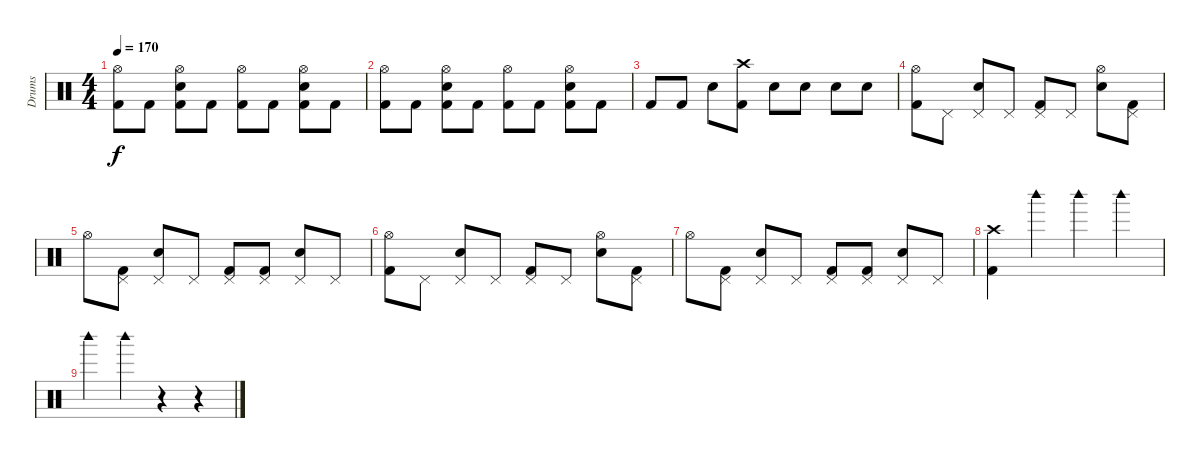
\track ("Drums" "Drums") {instrument percussion}
\staff {score}
\articulation defaults
\ts (4 4)
\tempo 170
\clef neutral
\ks c
("Hi-Hat (open)" "Kick (hit) 2").8{dy f} "Kick (hit) 2".8 ("Hi-Hat (open)" "Snare (hit) 2" "Kick (hit) 2").8 "Kick (hit) 2".8 ("Hi-Hat (open)" "Kick (hit) 2").8 "Kick (hit) 2".8 ("Hi-Hat (open)" "Snare (hit) 2" "Kick (hit) 2").8 "Kick (hit) 2".8 |
("Hi-Hat (open)" "Kick (hit) 2").8 "Kick (hit) 2".8 ("Hi-Hat (open)" "Snare (hit) 2" "Kick (hit) 2").8 "Kick (hit) 2".8 ("Hi-Hat (open)" "Kick (hit) 2").8 "Kick (hit) 2".8 ("Hi-Hat (open)" "Snare (hit) 2" "Kick (hit) 2").8 "Kick (hit) 2".8 |
"Kick (hit) 2".8 "Kick (hit) 2".8 "Snare (hit) 2".8 ("Crash high (hit)" "Kick (hit) 2").8 "Snare (hit) 2".8 "Snare (hit) 2".8 "Snare (hit) 2".8 "Snare (hit) 2".8 |
("Hi-Hat (open)" "Kick (hit) 2").8 "Pedal Hi-Hat (hit)".8 ("Pedal Hi-Hat (hit)" "Snare (hit) 2").8 "Pedal Hi-Hat (hit)".8 ("Pedal Hi-Hat (hit)" "Kick (hit) 2").8 "Pedal Hi-Hat (hit)".8 ("Hi-Hat (open)" "Snare (hit) 2").8 ("Pedal Hi-Hat (hit)" "Kick (hit) 2").8 |
"Hi-Hat (open)".8 ("Pedal Hi-Hat (hit)" "Kick (hit) 2").8 ("Pedal Hi-Hat (hit)" "Snare (hit) 2").8 "Pedal Hi-Hat (hit)".8 ("Pedal Hi-Hat (hit)" "Kick (hit) 2").8 ("Pedal Hi-Hat (hit)" "Kick (hit) 2").8 ("Pedal Hi-Hat (hit)" "Snare (hit) 2").8 "Pedal Hi-Hat (hit)".8 |
("Hi-Hat (open)" "Kick (hit) 2").8 "Pedal Hi-Hat (hit)".8 ("Pedal Hi-Hat (hit)" "Snare (hit) 2").8 "Pedal Hi-Hat (hit)".8 ("Pedal Hi-Hat (hit)" "Kick (hit) 2").8 "Pedal Hi-Hat (hit)".8 ("Hi-Hat (open)" "Snare (hit) 2").8 ("Pedal Hi-Hat (hit)" "Kick (hit) 2").8 |
"Hi-Hat (open)".8 ("Pedal Hi-Hat (hit)" "Kick (hit) 2").8 ("Pedal Hi-Hat (hit)" "Snare (hit) 2").8 "Pedal Hi-Hat (hit)".8 ("Pedal Hi-Hat (hit)" "Kick (hit) 2").8 ("Pedal Hi-Hat (hit)" "Kick (hit) 2").8 ("Pedal Hi-Hat (hit)" "Snare (hit) 2").8 "Pedal Hi-Hat (hit)".8 |
("Crash high (hit)" "Kick (hit) 2").4 "Woodblock high (hit)".4 "Woodblock high (hit)".4 "Woodblock high (hit)".4 |
"Woodblock high (hit)".4 "Woodblock high (hit)".4 r.4 r.4
